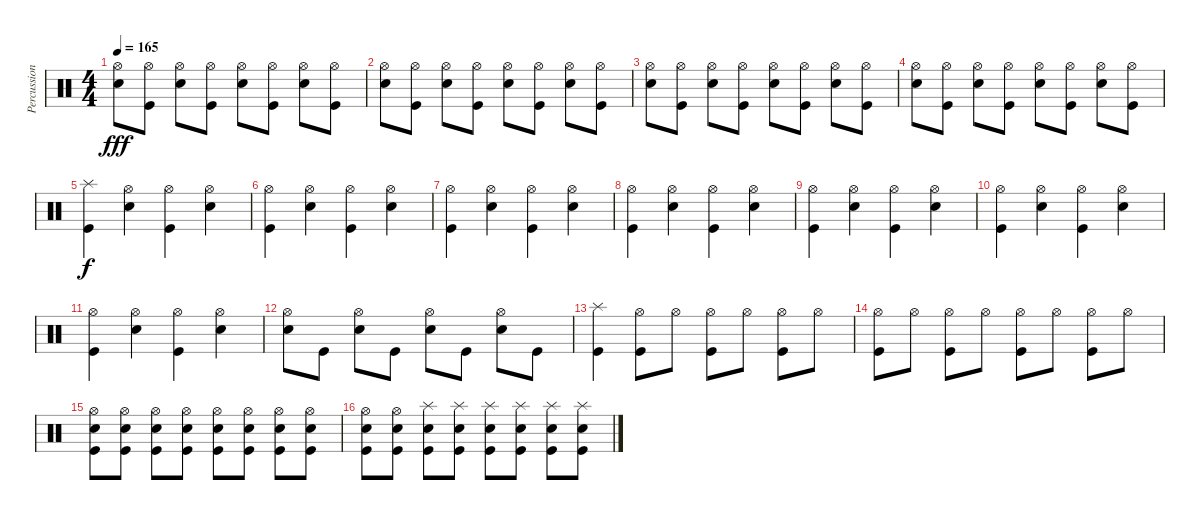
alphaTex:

\track ("Percussion" "Percussion") {instrument percussion}
\staff {score}
\articulation defaults
\ts (4 4)
\tempo 165
\clef neutral
\ks c
("Hi-Hat (open)" "Snare (hit) 2").8{dy fff} ("Hi-Hat (open)" "Kick (hit)").8 ("Hi-Hat (open)" "Snare (hit) 2").8 ("Hi-Hat (open)" "Kick (hit)").8 ("Hi-Hat (open)" "Snare (hit) 2").8 ("Hi-Hat (open)" "Kick (hit)").8 ("Hi-Hat (open)" "Snare (hit) 2").8 ("Hi-Hat (open)" "Kick (hit)").8 |
("Hi-Hat (open)" "Snare (hit) 2").8 ("Hi-Hat (open)" "Kick (hit)").8 ("Hi-Hat (open)" "Snare (hit) 2").8 ("Hi-Hat (open)" "Kick (hit)").8 ("Hi-Hat (open)" "Snare (hit) 2").8 ("Hi-Hat (open)" "Kick (hit)").8 ("Hi-Hat (open)" "Snare (hit) 2").8 ("Hi-Hat (open)" "Kick (hit)").8 |
("Hi-Hat (open)" "Snare (hit) 2").8 ("Hi-Hat (open)" "Kick (hit)").8 ("Hi-Hat (open)" "Snare (hit) 2").8 ("Hi-Hat (open)" "Kick (hit)").8 ("Hi-Hat (open)" "Snare (hit) 2").8 ("Hi-Hat (open)" "Kick (hit)").8 ("Hi-Hat (open)" "Snare (hit) 2").8 ("Hi-Hat (open)" "Kick (hit)").8 |
("Hi-Hat (open)" "Snare (hit) 2").8 ("Hi-Hat (open)" "Kick (hit)").8 ("Hi-Hat (open)" "Snare (hit) 2").8 ("Hi-Hat (open)" "Kick (hit)").8 ("Hi-Hat (open)" "Snare (hit) 2").8 ("Hi-Hat (open)" "Kick (hit)").8 ("Hi-Hat (open)" "Snare (hit) 2").8 ("Hi-Hat (open)" "Kick (hit)").8 |
("Splash (hit)" "Kick (hit)").4{dy f} ("Hi-Hat (open)" "Snare (hit) 2").4 ("Hi-Hat (open)" "Kick (hit)").4 ("Hi-Hat (open)" "Snare (hit) 2").4 |
("Hi-Hat (open)" "Kick (hit)").4 ("Hi-Hat (open)" "Snare (hit) 2").4 ("Hi-Hat (open)" "Kick (hit)").4 ("Hi-Hat (open)" "Snare (hit) 2").4 |
("Hi-Hat (open)" "Kick (hit)").4 ("Hi-Hat (open)" "Snare (hit) 2").4 ("Hi-Hat (open)" "Kick (hit)").4 ("Hi-Hat (open)" "Snare (hit) 2").4 |
("Hi-Hat (open)" "Kick (hit)").4 ("Hi-Hat (open)" "Snare (hit) 2").4 ("Hi-Hat (open)" "Kick (hit)").4 ("Hi-Hat (open)" "Snare (hit) 2").4 |
("Hi-Hat (open)" "Kick (hit)").4 ("Hi-Hat (open)" "Snare (hit) 2").4 ("Hi-Hat (open)" "Kick (hit)").4 ("Hi-Hat (open)" "Snare (hit) 2").4 |
("Hi-Hat (open)" "Kick (hit)").4 ("Hi-Hat (open)" "Snare (hit) 2").4 ("Hi-Hat (open)" "Kick (hit)").4 ("Hi-Hat (open)" "Snare (hit) 2").4 |
("Hi-Hat (open)" "Kick (hit)").4 ("Hi-Hat (open)" "Snare (hit) 2").4 ("Hi-Hat (open)" "Kick (hit)").4 ("Hi-Hat (open)" "Snare (hit) 2").4 |
("Hi-Hat (open)" "Snare (hit) 2").8 "Kick (hit)".8 ("Hi-Hat (open)" "Snare (hit) 2").8 "Kick (hit)".8 ("Hi-Hat (open)" "Snare (hit) 2").8 "Kick (hit)".8 ("Hi-Hat (open)" "Snare (hit) 2").8 "Kick (hit)".8 |
("Splash (hit)" "Kick (hit)").4 ("Hi-Hat (open)" "Kick (hit)").8 "Hi-Hat (open)".8 ("Hi-Hat (open)" "Kick (hit)").8 "Hi-Hat (open)".8 ("Hi-Hat (open)" "Kick (hit)").8 "Hi-Hat (open)".8 |
("Hi-Hat (open)" "Kick (hit)").8 "Hi-Hat (open)".8 ("Hi-Hat (open)" "Kick (hit)").8 "Hi-Hat (open)".8 ("Hi-Hat (open)" "Kick (hit)").8 "Hi-Hat (open)".8 ("Hi-Hat (open)" "Kick (hit)").8 "Hi-Hat (open)".8 |
("Hi-Hat (open)" "Snare (hit) 2" "Kick (hit)").8 ("Hi-Hat (open)" "Snare (hit) 2" "Kick (hit)").8 ("Hi-Hat (open)" "Snare (hit) 2" "Kick (hit)").8 ("Hi-Hat (open)" "Snare (hit) 2" "Kick (hit)").8 ("Hi-Hat (open)" "Snare (hit) 2" "Kick (hit)").8 ("Hi-Hat (open)" "Snare (hit) 2" "Kick (hit)").8 ("Hi-Hat (open)" "Snare (hit) 2" "Kick (hit)").8 ("Hi-Hat (open)" "Snare (hit) 2" "Kick (hit)").8 |
("Hi-Hat (open)" "Snare (hit) 2" "Kick (hit)").8 ("Hi-Hat (open)" "Snare (hit) 2" "Kick (hit)").8 ("Splash (hit)" "Snare (hit) 2" "Kick (hit)").8 ("Splash (hit)" "Snare (hit) 2" "Kick (hit)").8 ("Splash (hit)" "Snare (hit) 2" "Kick (hit)").8 ("Splash (hit)" "Snare (hit) 2" "Kick (hit)").8 ("Splash (hit)" "Snare (hit) 2" "Kick (hit)").8 ("Splash (hit)" "Snare (hit) 2" "Kick (hit)").8
